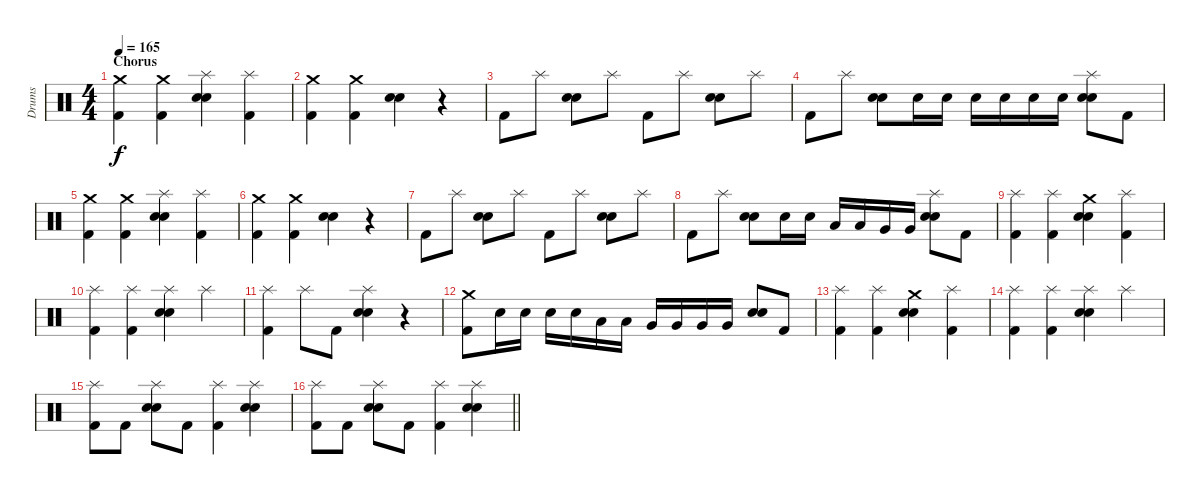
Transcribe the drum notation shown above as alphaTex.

\track ("Drums" "Drums") {instrument percussion}
\staff {score}
\articulation defaults
\ts (4 4)
\section ("" "Chorus")
\tempo 165
\clef neutral
\ks c
("Crash medium (hit)" "Kick (hit) 2").4{dy f} ("Crash medium (hit)" "Kick (hit) 2").4 ("Splash (hit)" "Electric Snare (hit)" "Snare (hit) 2").4 ("Splash (hit)" "Kick (hit) 2").4 |
("Crash medium (hit)" "Kick (hit) 2").4 ("Crash medium (hit)" "Kick (hit) 2").4 ("Electric Snare (hit)" "Snare (hit) 2").4 r.4 |
"Kick (hit) 2".8 "Splash (hit)".8 ("Electric Snare (hit)" "Snare (hit) 2").8 "Splash (hit)".8 "Kick (hit) 2".8 "Splash (hit)".8 ("Electric Snare (hit)" "Snare (hit) 2").8 "Splash (hit)".8 |
"Kick (hit) 2".8 "Splash (hit)".8 ("Electric Snare (hit)" "Snare (hit) 2").8 "Electric Snare (hit)".16 "Electric Snare (hit)".16 "Electric Snare (hit)".16 "Electric Snare (hit)".16 "Electric Snare (hit)".16 "Electric Snare (hit)".16 ("Splash (hit)" "Electric Snare (hit)" "Snare (hit) 2").8 "Kick (hit) 2".8 |
("Crash medium (hit)" "Kick (hit) 2").4 ("Crash medium (hit)" "Kick (hit) 2").4 ("Splash (hit)" "Electric Snare (hit)" "Snare (hit) 2").4 ("Splash (hit)" "Kick (hit) 2").4 |
("Crash medium (hit)" "Kick (hit) 2").4 ("Crash medium (hit)" "Kick (hit) 2").4 ("Electric Snare (hit)" "Snare (hit) 2").4 r.4 |
"Kick (hit) 2".8 "Splash (hit)".8 ("Electric Snare (hit)" "Snare (hit) 2").8 "Splash (hit)".8 "Kick (hit) 2".8 "Splash (hit)".8 ("Electric Snare (hit)" "Snare (hit) 2").8 "Splash (hit)".8 |
"Kick (hit) 2".8 "Splash (hit)".8 ("Electric Snare (hit)" "Snare (hit) 2").8 "Electric Snare (hit)".16 "Electric Snare (hit)".16 "Low Tom (hit)".16 "Low Tom (hit)".16 "Very Low Tom (hit)".16 "Very Low Tom (hit)".16 ("Splash (hit)" "Electric Snare (hit)" "Snare (hit) 2").8 "Kick (hit) 2".8 |
("Splash (hit)" "Kick (hit) 2").4 ("Splash (hit)" "Kick (hit) 2").4 ("Crash medium (hit)" "Electric Snare (hit)" "Snare (hit) 2").4 ("Splash (hit)" "Kick (hit) 2").4 |
("Splash (hit)" "Kick (hit) 2").4 ("Splash (hit)" "Kick (hit) 2").4 ("Splash (hit)" "Electric Snare (hit)" "Snare (hit) 2").4 "Splash (hit)".4 |
("Splash (hit)" "Kick (hit) 2").4 "Splash (hit)".8 "Kick (hit) 2".8 ("Splash (hit)" "Electric Snare (hit)" "Snare (hit) 2").4 r.4 |
("Crash medium (hit)" "Kick (hit) 2").8 "Electric Snare (hit)".16 "Electric Snare (hit)".16 "Electric Snare (hit)".16 "Electric Snare (hit)".16 "Low Tom (hit)".16 "Low Tom (hit)".16 "Very Low Tom (hit)".16 "Very Low Tom (hit)".16 "Very Low Tom (hit)".16 "Very Low Tom (hit)".16 ("Electric Snare (hit)" "Snare (hit) 2").8 "Kick (hit) 2".8 |
("Splash (hit)" "Kick (hit) 2").4 ("Splash (hit)" "Kick (hit) 2").4 ("Crash medium (hit)" "Electric Snare (hit)" "Snare (hit) 2").4 ("Splash (hit)" "Kick (hit) 2").4 |
("Splash (hit)" "Kick (hit) 2").4 ("Splash (hit)" "Kick (hit) 2").4 ("Splash (hit)" "Electric Snare (hit)" "Snare (hit) 2").4 "Splash (hit)".4 |
("Splash (hit)" "Kick (hit) 2").8 "Kick (hit) 2".8 ("Splash (hit)" "Electric Snare (hit)" "Snare (hit) 2").8 "Kick (hit) 2".8 ("Splash (hit)" "Kick (hit) 2").4 ("Splash (hit)" "Electric Snare (hit)" "Snare (hit) 2").4 |
\barLineRight lightlight
("Splash (hit)" "Kick (hit) 2").8 "Kick (hit) 2".8 ("Splash (hit)" "Electric Snare (hit)" "Snare (hit) 2").8 "Kick (hit) 2".8 ("Splash (hit)" "Kick (hit) 2").4 ("Splash (hit)" "Electric Snare (hit)" "Snare (hit) 2").4
